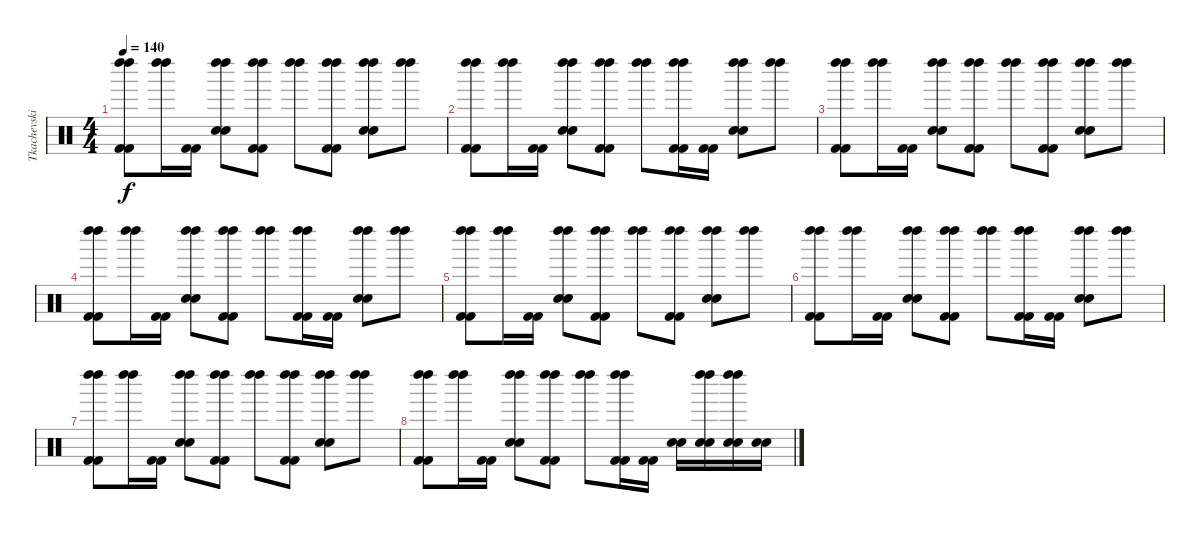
\track ("Tkachevskiy A" "Tkachevski") {instrument percussion}
\staff {score}
\articulation defaults
\ts (4 4)
\tempo 140
\clef neutral
\ks c
("Kick (hit) 2" "Left Maraca (hit)" "Kick (hit) 2" "Left Maraca (hit)").8{dy f} ("Left Maraca (hit)" "Left Maraca (hit)").16 ("Kick (hit) 2" "Kick (hit) 2").16 ("Snare (hit) 2" "Left Maraca (hit)" "Snare (hit) 2" "Left Maraca (hit)").8 ("Kick (hit) 2" "Left Maraca (hit)" "Kick (hit) 2" "Left Maraca (hit)").8 ("Left Maraca (hit)" "Left Maraca (hit)").8 ("Kick (hit) 2" "Left Maraca (hit)" "Kick (hit) 2" "Left Maraca (hit)").8 ("Snare (hit) 2" "Left Maraca (hit)" "Snare (hit) 2" "Left Maraca (hit)").8 ("Left Maraca (hit)" "Left Maraca (hit)").8 |
("Kick (hit) 2" "Left Maraca (hit)" "Kick (hit) 2" "Left Maraca (hit)").8 ("Left Maraca (hit)" "Left Maraca (hit)").16 ("Kick (hit) 2" "Kick (hit) 2").16 ("Snare (hit) 2" "Left Maraca (hit)" "Snare (hit) 2" "Left Maraca (hit)").8 ("Kick (hit) 2" "Left Maraca (hit)" "Kick (hit) 2" "Left Maraca (hit)").8 ("Left Maraca (hit)" "Left Maraca (hit)").8 ("Kick (hit) 2" "Left Maraca (hit)" "Kick (hit) 2" "Left Maraca (hit)").16 ("Kick (hit) 2" "Kick (hit) 2").16 ("Snare (hit) 2" "Left Maraca (hit)" "Snare (hit) 2" "Left Maraca (hit)").8 ("Left Maraca (hit)" "Left Maraca (hit)").8 |
("Kick (hit) 2" "Left Maraca (hit)" "Kick (hit) 2" "Left Maraca (hit)").8 ("Left Maraca (hit)" "Left Maraca (hit)").16 ("Kick (hit) 2" "Kick (hit) 2").16 ("Snare (hit) 2" "Left Maraca (hit)" "Snare (hit) 2" "Left Maraca (hit)").8 ("Kick (hit) 2" "Left Maraca (hit)" "Kick (hit) 2" "Left Maraca (hit)").8 ("Left Maraca (hit)" "Left Maraca (hit)").8 ("Kick (hit) 2" "Left Maraca (hit)" "Kick (hit) 2" "Left Maraca (hit)").8 ("Snare (hit) 2" "Left Maraca (hit)" "Snare (hit) 2" "Left Maraca (hit)").8 ("Left Maraca (hit)" "Left Maraca (hit)").8 |
("Kick (hit) 2" "Left Maraca (hit)" "Kick (hit) 2" "Left Maraca (hit)").8 ("Left Maraca (hit)" "Left Maraca (hit)").16 ("Kick (hit) 2" "Kick (hit) 2").16 ("Snare (hit) 2" "Left Maraca (hit)" "Snare (hit) 2" "Left Maraca (hit)").8 ("Kick (hit) 2" "Left Maraca (hit)" "Kick (hit) 2" "Left Maraca (hit)").8 ("Left Maraca (hit)" "Left Maraca (hit)").8 ("Kick (hit) 2" "Left Maraca (hit)" "Kick (hit) 2" "Left Maraca (hit)").16 ("Kick (hit) 2" "Kick (hit) 2").16 ("Snare (hit) 2" "Left Maraca (hit)" "Snare (hit) 2" "Left Maraca (hit)").8 ("Left Maraca (hit)" "Left Maraca (hit)").8 |
("Kick (hit) 2" "Left Maraca (hit)" "Kick (hit) 2" "Left Maraca (hit)").8 ("Left Maraca (hit)" "Left Maraca (hit)").16 ("Kick (hit) 2" "Kick (hit) 2").16 ("Snare (hit) 2" "Left Maraca (hit)" "Snare (hit) 2" "Left Maraca (hit)").8 ("Kick (hit) 2" "Left Maraca (hit)" "Kick (hit) 2" "Left Maraca (hit)").8 ("Left Maraca (hit)" "Left Maraca (hit)").8 ("Kick (hit) 2" "Left Maraca (hit)" "Kick (hit) 2" "Left Maraca (hit)").8 ("Snare (hit) 2" "Left Maraca (hit)" "Snare (hit) 2" "Left Maraca (hit)").8 ("Left Maraca (hit)" "Left Maraca (hit)").8 |
("Kick (hit) 2" "Left Maraca (hit)" "Kick (hit) 2" "Left Maraca (hit)").8 ("Left Maraca (hit)" "Left Maraca (hit)").16 ("Kick (hit) 2" "Kick (hit) 2").16 ("Snare (hit) 2" "Left Maraca (hit)" "Snare (hit) 2" "Left Maraca (hit)").8 ("Kick (hit) 2" "Left Maraca (hit)" "Kick (hit) 2" "Left Maraca (hit)").8 ("Left Maraca (hit)" "Left Maraca (hit)").8 ("Kick (hit) 2" "Left Maraca (hit)" "Kick (hit) 2" "Left Maraca (hit)").16 ("Kick (hit) 2" "Kick (hit) 2").16 ("Snare (hit) 2" "Left Maraca (hit)" "Snare (hit) 2" "Left Maraca (hit)").8 ("Left Maraca (hit)" "Left Maraca (hit)").8 |
("Kick (hit) 2" "Left Maraca (hit)" "Kick (hit) 2" "Left Maraca (hit)").8 ("Left Maraca (hit)" "Left Maraca (hit)").16 ("Kick (hit) 2" "Kick (hit) 2").16 ("Snare (hit) 2" "Left Maraca (hit)" "Snare (hit) 2" "Left Maraca (hit)").8 ("Kick (hit) 2" "Left Maraca (hit)" "Kick (hit) 2" "Left Maraca (hit)").8 ("Left Maraca (hit)" "Left Maraca (hit)").8 ("Kick (hit) 2" "Left Maraca (hit)" "Kick (hit) 2" "Left Maraca (hit)").8 ("Snare (hit) 2" "Left Maraca (hit)" "Snare (hit) 2" "Left Maraca (hit)").8 ("Left Maraca (hit)" "Left Maraca (hit)").8 |
("Kick (hit) 2" "Left Maraca (hit)" "Kick (hit) 2" "Left Maraca (hit)").8 ("Left Maraca (hit)" "Left Maraca (hit)").16 ("Kick (hit) 2" "Kick (hit) 2").16 ("Snare (hit) 2" "Left Maraca (hit)" "Snare (hit) 2" "Left Maraca (hit)").8 ("Kick (hit) 2" "Left Maraca (hit)" "Kick (hit) 2" "Left Maraca (hit)").8 ("Left Maraca (hit)" "Left Maraca (hit)").8 ("Kick (hit) 2" "Left Maraca (hit)" "Kick (hit) 2" "Left Maraca (hit)").16 ("Kick (hit) 2" "Kick (hit) 2").16 ("Snare (hit) 2" "Snare (hit) 2").16 ("Snare (hit) 2" "Left Maraca (hit)" "Snare (hit) 2" "Left Maraca (hit)").16 ("Snare (hit) 2" "Left Maraca (hit)" "Snare (hit) 2" "Left Maraca (hit)").16 ("Snare (hit) 2" "Snare (hit) 2").16
